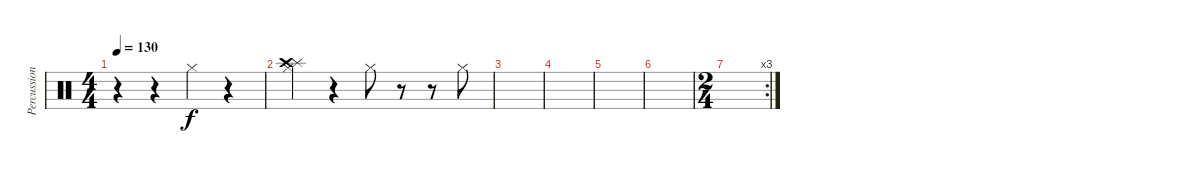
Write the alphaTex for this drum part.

\track ("Percussion" "Percussion") {instrument percussion}
\staff {score}
\articulation defaults
\ts (4 4)
\tempo 130
\clef neutral
\ks c
r.4{dy f} r.4 "Hi-Hat (closed)".4 r.4 |
("Hi-Hat (closed)" "Splash (hit)" "Crash high (hit)").4 r.4 "Hi-Hat (closed)".8 r.8 r.8 "Hi-Hat (closed)".8 |
|
|
|
|
\rc 3
\ts (2 4)
